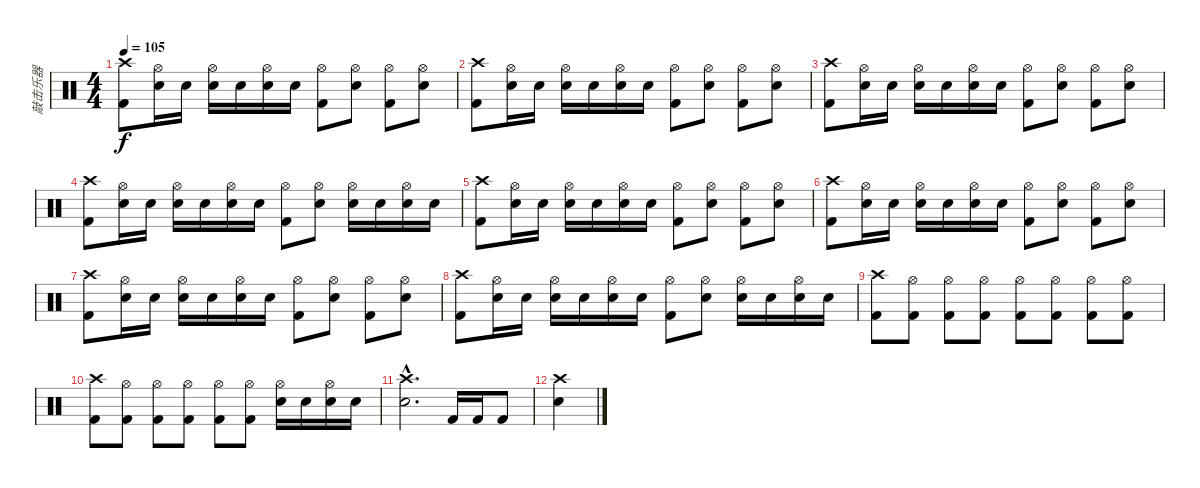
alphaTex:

\track ("敲击乐器" "敲击乐器") {instrument percussion}
\staff {score}
\articulation defaults
\ts (4 4)
\tempo 105
\clef neutral
\ks c
("Crash high (hit)" "Kick (hit) 2").8{dy f} ("Hi-Hat (open)" "Snare (hit) 2").16 "Snare (hit) 2".16 ("Hi-Hat (open)" "Snare (hit) 2").16 "Snare (hit) 2".16 ("Hi-Hat (open)" "Snare (hit) 2").16 "Snare (hit) 2".16 ("Hi-Hat (open)" "Kick (hit) 2").8 ("Hi-Hat (open)" "Snare (hit) 2").8 ("Hi-Hat (open)" "Kick (hit) 2").8 ("Hi-Hat (open)" "Snare (hit) 2").8 |
("Crash high (hit)" "Kick (hit) 2").8 ("Hi-Hat (open)" "Snare (hit) 2").16 "Snare (hit) 2".16 ("Hi-Hat (open)" "Snare (hit) 2").16 "Snare (hit) 2".16 ("Hi-Hat (open)" "Snare (hit) 2").16 "Snare (hit) 2".16 ("Hi-Hat (open)" "Kick (hit) 2").8 ("Hi-Hat (open)" "Snare (hit) 2").8 ("Hi-Hat (open)" "Kick (hit) 2").8 ("Hi-Hat (open)" "Snare (hit) 2").8 |
("Crash high (hit)" "Kick (hit) 2").8 ("Hi-Hat (open)" "Snare (hit) 2").16 "Snare (hit) 2".16 ("Hi-Hat (open)" "Snare (hit) 2").16 "Snare (hit) 2".16 ("Hi-Hat (open)" "Snare (hit) 2").16 "Snare (hit) 2".16 ("Hi-Hat (open)" "Kick (hit) 2").8 ("Hi-Hat (open)" "Snare (hit) 2").8 ("Hi-Hat (open)" "Kick (hit) 2").8 ("Hi-Hat (open)" "Snare (hit) 2").8 |
("Crash high (hit)" "Kick (hit) 2").8 ("Hi-Hat (open)" "Snare (hit) 2").16 "Snare (hit) 2".16 ("Hi-Hat (open)" "Snare (hit) 2").16 "Snare (hit) 2".16 ("Hi-Hat (open)" "Snare (hit) 2").16 "Snare (hit) 2".16 ("Hi-Hat (open)" "Kick (hit) 2").8 ("Hi-Hat (open)" "Snare (hit) 2").8 ("Hi-Hat (open)" "Snare (hit) 2").16 "Snare (hit) 2".16 ("Hi-Hat (open)" "Snare (hit) 2").16 "Snare (hit) 2".16 |
("Crash high (hit)" "Kick (hit) 2").8 ("Hi-Hat (open)" "Snare (hit) 2").16 "Snare (hit) 2".16 ("Hi-Hat (open)" "Snare (hit) 2").16 "Snare (hit) 2".16 ("Hi-Hat (open)" "Snare (hit) 2").16 "Snare (hit) 2".16 ("Hi-Hat (open)" "Kick (hit) 2").8 ("Hi-Hat (open)" "Snare (hit) 2").8 ("Hi-Hat (open)" "Kick (hit) 2").8 ("Hi-Hat (open)" "Snare (hit) 2").8 |
("Crash high (hit)" "Kick (hit) 2").8 ("Hi-Hat (open)" "Snare (hit) 2").16 "Snare (hit) 2".16 ("Hi-Hat (open)" "Snare (hit) 2").16 "Snare (hit) 2".16 ("Hi-Hat (open)" "Snare (hit) 2").16 "Snare (hit) 2".16 ("Hi-Hat (open)" "Kick (hit) 2").8 ("Hi-Hat (open)" "Snare (hit) 2").8 ("Hi-Hat (open)" "Kick (hit) 2").8 ("Hi-Hat (open)" "Snare (hit) 2").8 |
("Crash high (hit)" "Kick (hit) 2").8 ("Hi-Hat (open)" "Snare (hit) 2").16 "Snare (hit) 2".16 ("Hi-Hat (open)" "Snare (hit) 2").16 "Snare (hit) 2".16 ("Hi-Hat (open)" "Snare (hit) 2").16 "Snare (hit) 2".16 ("Hi-Hat (open)" "Kick (hit) 2").8 ("Hi-Hat (open)" "Snare (hit) 2").8 ("Hi-Hat (open)" "Kick (hit) 2").8 ("Hi-Hat (open)" "Snare (hit) 2").8 |
("Crash high (hit)" "Kick (hit) 2").8 ("Hi-Hat (open)" "Snare (hit) 2").16 "Snare (hit) 2".16 ("Hi-Hat (open)" "Snare (hit) 2").16 "Snare (hit) 2".16 ("Hi-Hat (open)" "Snare (hit) 2").16 "Snare (hit) 2".16 ("Hi-Hat (open)" "Kick (hit) 2").8 ("Hi-Hat (open)" "Snare (hit) 2").8 ("Hi-Hat (open)" "Snare (hit) 2").16 "Snare (hit) 2".16 ("Hi-Hat (open)" "Snare (hit) 2").16 "Snare (hit) 2".16 |
("Crash high (hit)" "Kick (hit) 2").8 ("Hi-Hat (open)" "Kick (hit) 2").8 ("Hi-Hat (open)" "Kick (hit) 2").8 ("Hi-Hat (open)" "Kick (hit) 2").8 ("Hi-Hat (open)" "Kick (hit) 2").8 ("Hi-Hat (open)" "Kick (hit) 2").8 ("Hi-Hat (open)" "Kick (hit) 2").8 ("Hi-Hat (open)" "Kick (hit) 2").8 |
("Crash high (hit)" "Kick (hit) 2").8 ("Hi-Hat (open)" "Kick (hit) 2").8 ("Hi-Hat (open)" "Kick (hit) 2").8 ("Hi-Hat (open)" "Kick (hit) 2").8 ("Hi-Hat (open)" "Kick (hit) 2").8 ("Hi-Hat (open)" "Kick (hit) 2").8 ("Hi-Hat (open)" "Snare (hit) 2").16 "Snare (hit) 2".16 ("Hi-Hat (open)" "Snare (hit) 2").16 "Snare (hit) 2".16 |
("Crash high (hit)"{hac} "Snare (hit) 2"{hac}).2{d} "Kick (hit) 2".16 "Kick (hit) 2".16 "Kick (hit) 2".8 |
("Crash high (hit)" "Snare (hit) 2").4
